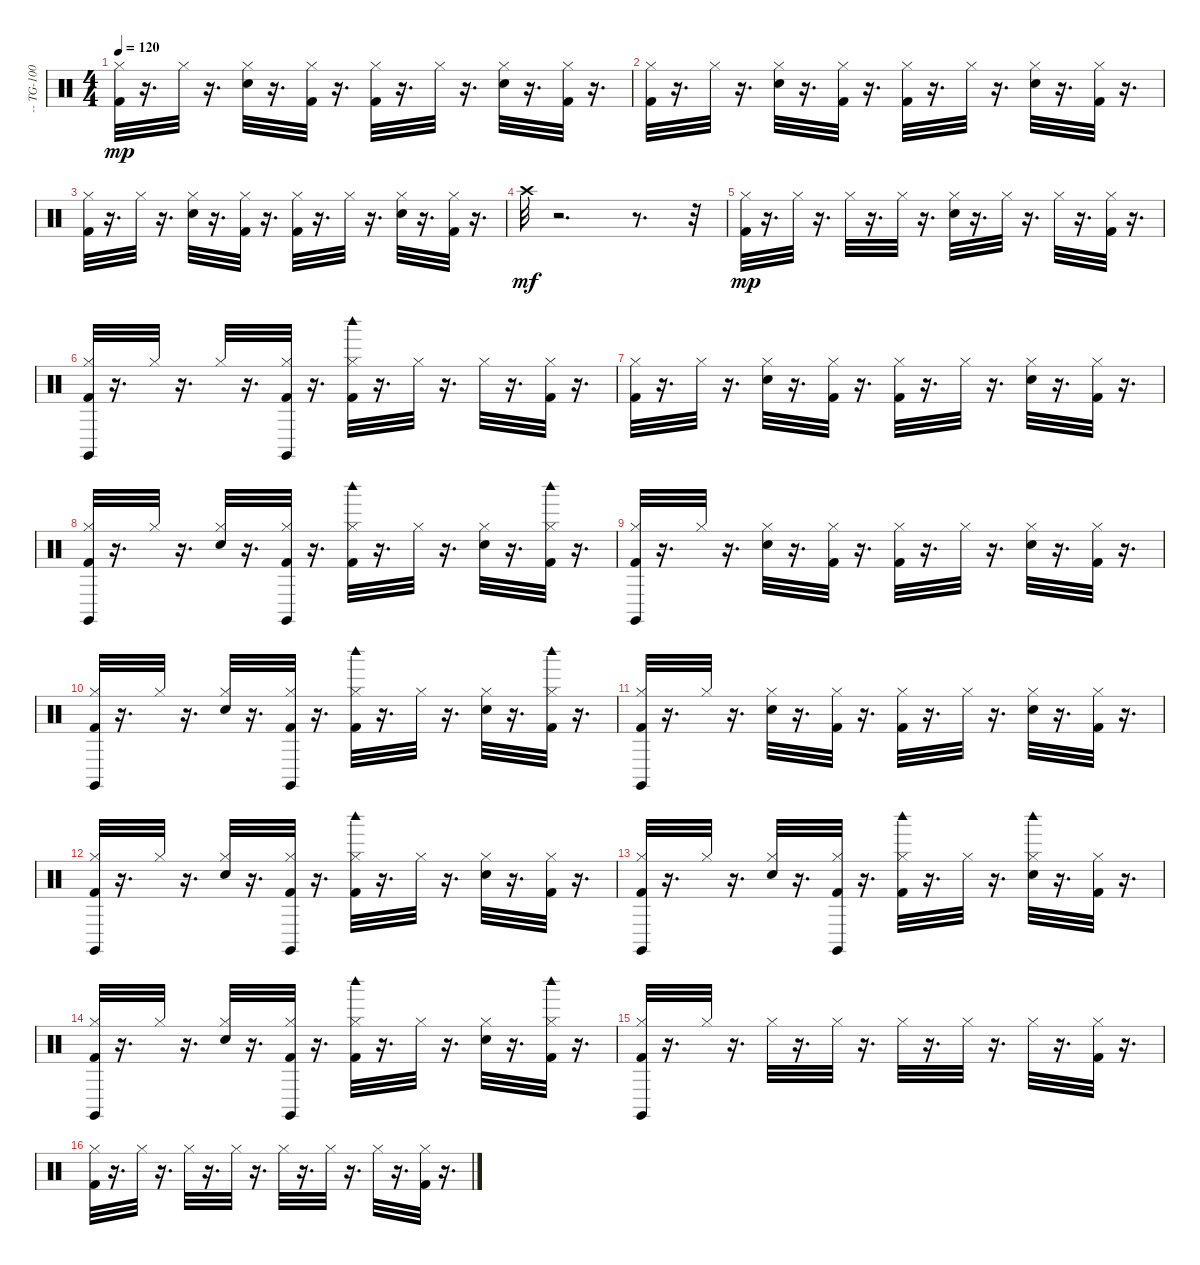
\track ("-- TG-100 GS Drum --" "-- TG-100 ") {instrument percussion}
\staff {score}
\articulation defaults
\ts (4 4)
\tempo 120
\clef neutral
\ks c
("Hi-Hat (closed)" "Kick (hit) 2").32{dy mp} r.16{d} "Hi-Hat (closed)".32 r.16{d} ("Hi-Hat (closed)" "Snare (hit) 2").32 r.16{d} ("Hi-Hat (closed)" "Kick (hit) 2").32 r.16{d} ("Hi-Hat (closed)" "Kick (hit) 2").32 r.16{d} "Hi-Hat (closed)".32 r.16{d} ("Hi-Hat (closed)" "Snare (hit) 2").32 r.16{d} ("Hi-Hat (closed)" "Kick (hit) 2").32 r.16{d} |
("Hi-Hat (closed)" "Kick (hit) 2").32 r.16{d} "Hi-Hat (closed)".32 r.16{d} ("Hi-Hat (closed)" "Snare (hit) 2").32 r.16{d} ("Hi-Hat (closed)" "Kick (hit) 2").32 r.16{d} ("Hi-Hat (closed)" "Kick (hit) 2").32 r.16{d} "Hi-Hat (closed)".32 r.16{d} ("Hi-Hat (closed)" "Snare (hit) 2").32 r.16{d} ("Hi-Hat (closed)" "Kick (hit) 2").32 r.16{d} |
("Hi-Hat (closed)" "Kick (hit) 2").32 r.16{d} "Hi-Hat (closed)".32 r.16{d} ("Hi-Hat (closed)" "Snare (hit) 2").32 r.16{d} ("Hi-Hat (closed)" "Kick (hit) 2").32 r.16{d} ("Hi-Hat (closed)" "Kick (hit) 2").32 r.16{d} "Hi-Hat (closed)".32 r.16{d} ("Hi-Hat (closed)" "Snare (hit) 2").32 r.16{d} ("Hi-Hat (closed)" "Kick (hit) 2").32 r.16{d} |
"Crash high (hit)".32{dy mf} r.2{d} r.8{d} r.32 |
("Hi-Hat (closed)" "Kick (hit) 2").32{dy mp} r.16{d} "Hi-Hat (closed)".32 r.16{d} "Hi-Hat (closed)".32 r.16{d} "Hi-Hat (closed)".32 r.16{d} ("Hi-Hat (closed)" "Snare (hit) 2").32 r.16{d} "Hi-Hat (closed)".32 r.16{d} "Hi-Hat (closed)".32 r.16{d} ("Hi-Hat (closed)" "Kick (hit) 2").32 r.16{d} |
("Hi-Hat (closed)" "Claves (hit)" "Kick (hit) 2").32 r.16{d} "Hi-Hat (closed)".32 r.16{d} "Hi-Hat (closed)".32 r.16{d} ("Hi-Hat (closed)" "Claves (hit)" "Kick (hit) 2").32 r.16{d} ("Hi-Hat (closed)" "Woodblock high (hit)" "Kick (hit) 2").32 r.16{d} "Hi-Hat (closed)".32 r.16{d} "Hi-Hat (closed)".32 r.16{d} ("Hi-Hat (closed)" "Kick (hit) 2").32 r.16{d} |
("Hi-Hat (closed)" "Kick (hit) 2").32 r.16{d} "Hi-Hat (closed)".32 r.16{d} ("Hi-Hat (closed)" "Snare (hit) 2").32 r.16{d} ("Hi-Hat (closed)" "Kick (hit) 2").32 r.16{d} ("Hi-Hat (closed)" "Kick (hit) 2").32 r.16{d} "Hi-Hat (closed)".32 r.16{d} ("Hi-Hat (closed)" "Snare (hit) 2").32 r.16{d} ("Hi-Hat (closed)" "Kick (hit) 2").32 r.16{d} |
("Hi-Hat (closed)" "Claves (hit)" "Kick (hit) 2").32 r.16{d} "Hi-Hat (closed)".32 r.16{d} ("Hi-Hat (closed)" "Snare (hit) 2").32 r.16{d} ("Hi-Hat (closed)" "Claves (hit)" "Kick (hit) 2").32 r.16{d} ("Hi-Hat (closed)" "Woodblock high (hit)" "Kick (hit) 2").32 r.16{d} "Hi-Hat (closed)".32 r.16{d} ("Hi-Hat (closed)" "Snare (hit) 2").32 r.16{d} ("Hi-Hat (closed)" "Woodblock high (hit)" "Kick (hit) 2").32 r.16{d} |
("Hi-Hat (closed)" "Claves (hit)" "Kick (hit) 2").32 r.16{d} "Hi-Hat (closed)".32 r.16{d} ("Hi-Hat (closed)" "Snare (hit) 2").32 r.16{d} ("Hi-Hat (closed)" "Kick (hit) 2").32 r.16{d} ("Hi-Hat (closed)" "Kick (hit) 2").32 r.16{d} "Hi-Hat (closed)".32 r.16{d} ("Hi-Hat (closed)" "Snare (hit) 2").32 r.16{d} ("Hi-Hat (closed)" "Kick (hit) 2").32 r.16{d} |
("Hi-Hat (closed)" "Claves (hit)" "Kick (hit) 2").32 r.16{d} "Hi-Hat (closed)".32 r.16{d} ("Hi-Hat (closed)" "Snare (hit) 2").32 r.16{d} ("Hi-Hat (closed)" "Claves (hit)" "Kick (hit) 2").32 r.16{d} ("Hi-Hat (closed)" "Woodblock high (hit)" "Kick (hit) 2").32 r.16{d} "Hi-Hat (closed)".32 r.16{d} ("Hi-Hat (closed)" "Snare (hit) 2").32 r.16{d} ("Hi-Hat (closed)" "Woodblock high (hit)" "Kick (hit) 2").32 r.16{d} |
("Hi-Hat (closed)" "Claves (hit)" "Kick (hit) 2").32 r.16{d} "Hi-Hat (closed)".32 r.16{d} ("Hi-Hat (closed)" "Snare (hit) 2").32 r.16{d} ("Hi-Hat (closed)" "Kick (hit) 2").32 r.16{d} ("Hi-Hat (closed)" "Kick (hit) 2").32 r.16{d} "Hi-Hat (closed)".32 r.16{d} ("Hi-Hat (closed)" "Snare (hit) 2").32 r.16{d} ("Hi-Hat (closed)" "Kick (hit) 2").32 r.16{d} |
("Hi-Hat (closed)" "Claves (hit)" "Kick (hit) 2").32 r.16{d} "Hi-Hat (closed)".32 r.16{d} ("Hi-Hat (closed)" "Snare (hit) 2").32 r.16{d} ("Hi-Hat (closed)" "Claves (hit)" "Kick (hit) 2").32 r.16{d} ("Hi-Hat (closed)" "Woodblock high (hit)" "Kick (hit) 2").32 r.16{d} "Hi-Hat (closed)".32 r.16{d} ("Hi-Hat (closed)" "Snare (hit) 2").32 r.16{d} ("Hi-Hat (closed)" "Kick (hit) 2").32 r.16{d} |
("Hi-Hat (closed)" "Claves (hit)" "Kick (hit) 2").32 r.16{d} "Hi-Hat (closed)".32 r.16{d} ("Hi-Hat (closed)" "Snare (hit) 2").32 r.16{d} ("Hi-Hat (closed)" "Claves (hit)" "Kick (hit) 2").32 r.16{d} ("Hi-Hat (closed)" "Woodblock high (hit)" "Kick (hit) 2").32 r.16{d} "Hi-Hat (closed)".32 r.16{d} ("Hi-Hat (closed)" "Woodblock high (hit)" "Snare (hit) 2").32 r.16{d} ("Hi-Hat (closed)" "Kick (hit) 2").32 r.16{d} |
("Hi-Hat (closed)" "Claves (hit)" "Kick (hit) 2").32 r.16{d} "Hi-Hat (closed)".32 r.16{d} ("Hi-Hat (closed)" "Snare (hit) 2").32 r.16{d} ("Hi-Hat (closed)" "Claves (hit)" "Kick (hit) 2").32 r.16{d} ("Hi-Hat (closed)" "Woodblock high (hit)" "Kick (hit) 2").32 r.16{d} "Hi-Hat (closed)".32 r.16{d} ("Hi-Hat (closed)" "Snare (hit) 2").32 r.16{d} ("Hi-Hat (closed)" "Woodblock high (hit)" "Kick (hit) 2").32 r.16{d} |
("Hi-Hat (closed)" "Claves (hit)" "Kick (hit) 2").32 r.16{d} "Hi-Hat (closed)".32 r.16{d} "Hi-Hat (closed)".32 r.16{d} "Hi-Hat (closed)".32 r.16{d} "Hi-Hat (closed)".32 r.16{d} "Hi-Hat (closed)".32 r.16{d} "Hi-Hat (closed)".32 r.16{d} ("Hi-Hat (closed)" "Kick (hit) 2").32 r.16{d} |
("Hi-Hat (closed)" "Kick (hit) 2").32 r.16{d} "Hi-Hat (closed)".32 r.16{d} "Hi-Hat (closed)".32 r.16{d} "Hi-Hat (closed)".32 r.16{d} "Hi-Hat (closed)".32 r.16{d} "Hi-Hat (closed)".32 r.16{d} "Hi-Hat (closed)".32 r.16{d} ("Hi-Hat (closed)" "Kick (hit) 2").32 r.16{d}
